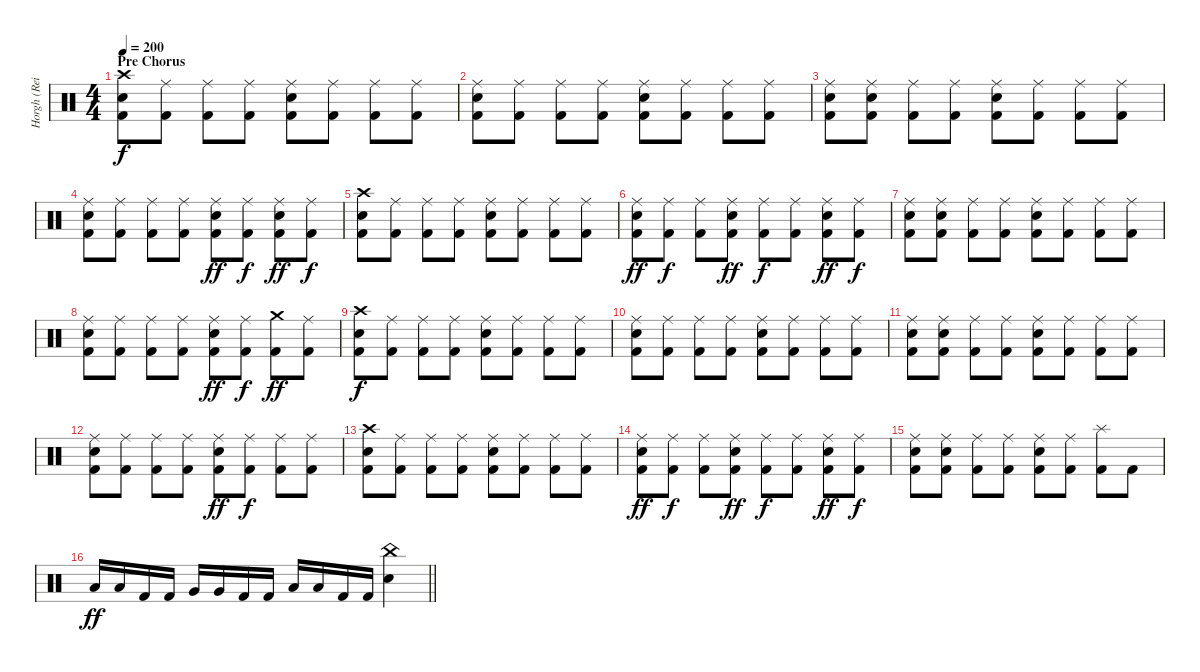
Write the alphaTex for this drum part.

\track ("Horgh (Reidar Horghagen)" "Horgh (Rei") {instrument percussion}
\staff {score}
\articulation defaults
\ts (4 4)
\section ("" "Pre Chorus")
\tempo 200
\clef neutral
\ks c
("Crash high (hit)" "Snare (hit) 2" "Kick (hit) 2").8{dy f} ("Ride (middle)" "Kick (hit) 2").8 ("Ride (middle)" "Kick (hit) 2").8 ("Ride (middle)" "Kick (hit) 2").8 ("Ride (middle)" "Snare (hit) 2" "Kick (hit) 2").8 ("Ride (middle)" "Kick (hit) 2").8 ("Ride (middle)" "Kick (hit) 2").8 ("Ride (middle)" "Kick (hit) 2").8 |
("Ride (middle)" "Snare (hit) 2" "Kick (hit) 2").8 ("Ride (middle)" "Kick (hit) 2").8 ("Ride (middle)" "Kick (hit) 2").8 ("Ride (middle)" "Kick (hit) 2").8 ("Ride (middle)" "Snare (hit) 2" "Kick (hit) 2").8 ("Ride (middle)" "Kick (hit) 2").8 ("Ride (middle)" "Kick (hit) 2").8 ("Ride (middle)" "Kick (hit) 2").8 |
("Ride (middle)" "Snare (hit) 2" "Kick (hit) 2").8 ("Ride (middle)" "Snare (hit) 2" "Kick (hit) 2").8 ("Ride (middle)" "Kick (hit) 2").8 ("Ride (middle)" "Kick (hit) 2").8 ("Ride (middle)" "Snare (hit) 2" "Kick (hit) 2").8 ("Ride (middle)" "Kick (hit) 2").8 ("Ride (middle)" "Kick (hit) 2").8 ("Ride (middle)" "Kick (hit) 2").8 |
("Ride (middle)" "Snare (hit) 2" "Kick (hit) 2").8 ("Ride (middle)" "Kick (hit) 2").8 ("Ride (middle)" "Kick (hit) 2").8 ("Ride (middle)" "Kick (hit) 2").8 ("Ride (middle)" "Snare (hit) 2" "Kick (hit) 2").8{dy ff} ("Ride (middle)" "Kick (hit) 2").8{dy f} ("Ride (middle)" "Snare (hit) 2" "Kick (hit) 2").8{dy ff} ("Ride (middle)" "Kick (hit) 2").8{dy f} |
("Crash high (hit)" "Snare (hit) 2" "Kick (hit) 2").8 ("Ride (middle)" "Kick (hit) 2").8 ("Ride (middle)" "Kick (hit) 2").8 ("Ride (middle)" "Kick (hit) 2").8 ("Ride (middle)" "Snare (hit) 2" "Kick (hit) 2").8 ("Ride (middle)" "Kick (hit) 2").8 ("Ride (middle)" "Kick (hit) 2").8 ("Ride (middle)" "Kick (hit) 2").8 |
("Ride (middle)" "Snare (hit) 2" "Kick (hit) 2").8{dy ff} ("Ride (middle)" "Kick (hit) 2").8{dy f} ("Ride (middle)" "Kick (hit) 2").8 ("Ride (middle)" "Snare (hit) 2" "Kick (hit) 2").8{dy ff} ("Ride (middle)" "Kick (hit) 2").8{dy f} ("Ride (middle)" "Kick (hit) 2").8 ("Ride (middle)" "Snare (hit) 2" "Kick (hit) 2").8{dy ff} ("Ride (middle)" "Kick (hit) 2").8{dy f} |
("Ride (middle)" "Snare (hit) 2" "Kick (hit) 2").8 ("Ride (middle)" "Snare (hit) 2" "Kick (hit) 2").8 ("Ride (middle)" "Kick (hit) 2").8 ("Ride (middle)" "Kick (hit) 2").8 ("Ride (middle)" "Snare (hit) 2" "Kick (hit) 2").8 ("Ride (middle)" "Kick (hit) 2").8 ("Ride (middle)" "Kick (hit) 2").8 ("Ride (middle)" "Kick (hit) 2").8 |
("Ride (middle)" "Snare (hit) 2" "Kick (hit) 2").8 ("Ride (middle)" "Kick (hit) 2").8 ("Ride (middle)" "Kick (hit) 2").8 ("Ride (middle)" "Kick (hit) 2").8 ("Ride (middle)" "Snare (hit) 2" "Kick (hit) 2").8{dy ff} ("Ride (middle)" "Kick (hit) 2").8{dy f} ("Crash medium (hit)" "Kick (hit) 2").8{dy ff} ("Ride (middle)" "Kick (hit) 2").8 |
("Crash high (hit)" "Snare (hit) 2" "Kick (hit) 2").8{dy f} ("Ride (middle)" "Kick (hit) 2").8 ("Ride (middle)" "Kick (hit) 2").8 ("Ride (middle)" "Kick (hit) 2").8 ("Ride (middle)" "Snare (hit) 2" "Kick (hit) 2").8 ("Ride (middle)" "Kick (hit) 2").8 ("Ride (middle)" "Kick (hit) 2").8 ("Ride (middle)" "Kick (hit) 2").8 |
("Ride (middle)" "Snare (hit) 2" "Kick (hit) 2").8 ("Ride (middle)" "Kick (hit) 2").8 ("Ride (middle)" "Kick (hit) 2").8 ("Ride (middle)" "Kick (hit) 2").8 ("Ride (middle)" "Snare (hit) 2" "Kick (hit) 2").8 ("Ride (middle)" "Kick (hit) 2").8 ("Ride (middle)" "Kick (hit) 2").8 ("Ride (middle)" "Kick (hit) 2").8 |
("Ride (middle)" "Snare (hit) 2" "Kick (hit) 2").8 ("Ride (middle)" "Snare (hit) 2" "Kick (hit) 2").8 ("Ride (middle)" "Kick (hit) 2").8 ("Ride (middle)" "Kick (hit) 2").8 ("Ride (middle)" "Snare (hit) 2" "Kick (hit) 2").8 ("Ride (middle)" "Kick (hit) 2").8 ("Ride (middle)" "Kick (hit) 2").8 ("Ride (middle)" "Kick (hit) 2").8 |
("Ride (middle)" "Snare (hit) 2" "Kick (hit) 2").8 ("Ride (middle)" "Kick (hit) 2").8 ("Ride (middle)" "Kick (hit) 2").8 ("Ride (middle)" "Kick (hit) 2").8 ("Ride (middle)" "Snare (hit) 2" "Kick (hit) 2").8{dy ff} ("Ride (middle)" "Kick (hit) 2").8{dy f} ("Ride (middle)" "Kick (hit) 2").8 ("Ride (middle)" "Kick (hit) 2").8 |
("Crash high (hit)" "Snare (hit) 2" "Kick (hit) 2").8 ("Ride (middle)" "Kick (hit) 2").8 ("Ride (middle)" "Kick (hit) 2").8 ("Ride (middle)" "Kick (hit) 2").8 ("Ride (middle)" "Snare (hit) 2" "Kick (hit) 2").8 ("Ride (middle)" "Kick (hit) 2").8 ("Ride (middle)" "Kick (hit) 2").8 ("Ride (middle)" "Kick (hit) 2").8 |
("Ride (middle)" "Snare (hit) 2" "Kick (hit) 2").8{dy ff} ("Ride (middle)" "Kick (hit) 2").8{dy f} ("Ride (middle)" "Kick (hit) 2").8 ("Ride (middle)" "Snare (hit) 2" "Kick (hit) 2").8{dy ff} ("Ride (middle)" "Kick (hit) 2").8{dy f} ("Ride (middle)" "Kick (hit) 2").8 ("Ride (middle)" "Snare (hit) 2" "Kick (hit) 2").8{dy ff} ("Ride (middle)" "Kick (hit) 2").8{dy f} |
("Ride (middle)" "Snare (hit) 2" "Kick (hit) 2").8 ("Ride (middle)" "Snare (hit) 2" "Kick (hit) 2").8 ("Ride (middle)" "Kick (hit) 2").8 ("Ride (middle)" "Kick (hit) 2").8 ("Ride (middle)" "Snare (hit) 2" "Kick (hit) 2").8 ("Ride (middle)" "Kick (hit) 2").8 ("Splash (hit)" "Kick (hit) 2").8 "Kick (hit) 2".8 |
\barLineRight lightlight "Low Tom (hit)".16{dy ff} "Low Tom (hit)".16 "Kick (hit) 2".16 "Kick (hit) 2".16 "Very Low Tom (hit)".16 "Very Low Tom (hit)".16 "Kick (hit) 2".16 "Kick (hit) 2".16 "Low Floor Tom (hit)".16 "Low Floor Tom (hit)".16 "Kick (hit) 2".16 "Kick (hit) 2".16
("China (hit)" "Snare (hit) 2").4
